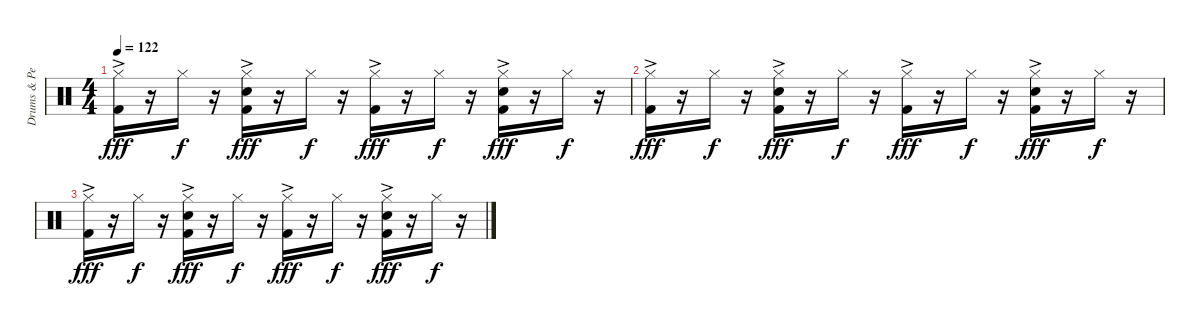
\track ("Drums & Percussion" "Drums & Pe") {instrument percussion}
\staff {score}
\articulation defaults
\ts (4 4)
\tempo 122
\clef neutral
\ks c
("Hi-Hat (closed)"{ac} "Kick (hit) 2").16{dy fff} r.16 "Hi-Hat (closed)".16{dy f} r.16 ("Hi-Hat (closed)"{ac} "Electric Snare (hit)" "Kick (hit) 2").16{dy fff} r.16 "Hi-Hat (closed)".16{dy f} r.16 ("Hi-Hat (closed)"{ac} "Kick (hit) 2").16{dy fff} r.16 "Hi-Hat (closed)".16{dy f} r.16 ("Hi-Hat (closed)"{ac} "Electric Snare (hit)" "Kick (hit) 2").16{dy fff} r.16 "Hi-Hat (closed)".16{dy f} r.16 |
("Hi-Hat (closed)"{ac} "Kick (hit) 2").16{dy fff} r.16 "Hi-Hat (closed)".16{dy f} r.16 ("Hi-Hat (closed)"{ac} "Electric Snare (hit)" "Kick (hit) 2").16{dy fff} r.16 "Hi-Hat (closed)".16{dy f} r.16 ("Hi-Hat (closed)"{ac} "Kick (hit) 2").16{dy fff} r.16 "Hi-Hat (closed)".16{dy f} r.16 ("Hi-Hat (closed)"{ac} "Electric Snare (hit)" "Kick (hit) 2").16{dy fff} r.16 "Hi-Hat (closed)".16{dy f} r.16 |
("Hi-Hat (closed)"{ac} "Kick (hit) 2").16{dy fff} r.16 "Hi-Hat (closed)".16{dy f} r.16 ("Hi-Hat (closed)"{ac} "Electric Snare (hit)" "Kick (hit) 2").16{dy fff} r.16 "Hi-Hat (closed)".16{dy f} r.16 ("Hi-Hat (closed)"{ac} "Kick (hit) 2").16{dy fff} r.16 "Hi-Hat (closed)".16{dy f} r.16 ("Hi-Hat (closed)"{ac} "Electric Snare (hit)" "Kick (hit) 2").16{dy fff} r.16 "Hi-Hat (closed)".16{dy f} r.16
